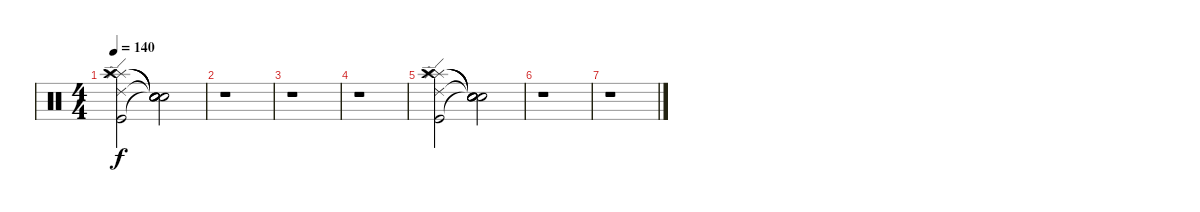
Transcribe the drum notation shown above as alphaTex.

\track "" {instrument percussion}
\staff {score}
\articulation defaults
\ts (4 4)
\tempo 140
\clef neutral
\ks c
("Kick (hit)" "Splash (hit)" "Splash (hit)" "Ride (edge) 2" "Crash high (hit)").2{dy f} ("Snare (hit)"{t} "Snare (hit)"{t} "Snare (hit)"{t} "Snare (hit)"{t} "Snare (hit)"{t}).2 |
r.1 |
r.1 |
r.1 |
("Kick (hit)" "Splash (hit)" "Splash (hit)" "Ride (edge) 2" "Crash high (hit)").2 ("Snare (hit)"{t} "Snare (hit)"{t} "Snare (hit)"{t} "Snare (hit)"{t} "Snare (hit)"{t}).2 |
r.1 |
r.1
